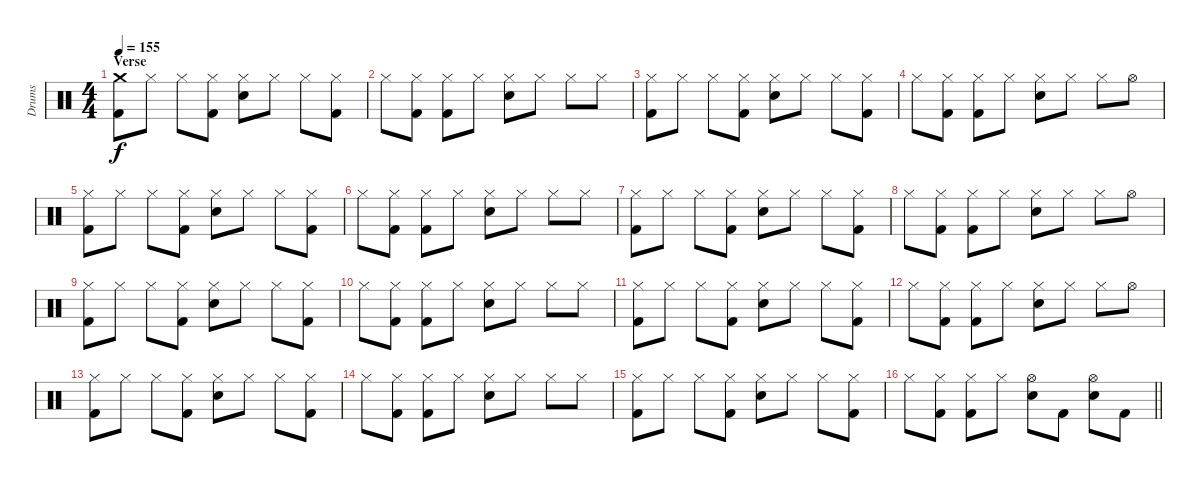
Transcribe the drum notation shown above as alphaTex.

\track ("Drums" "Drums") {instrument percussion}
\staff {score}
\articulation defaults
\ts (4 4)
\section ("" "Verse")
\tempo 155
\clef neutral
\ks c
("Crash medium (hit)" "Kick (hit) 2").8{dy f} "Hi-Hat (closed)".8 "Hi-Hat (closed)".8 ("Hi-Hat (closed)" "Kick (hit) 2").8 ("Hi-Hat (closed)" "Electric Snare (hit)").8 "Hi-Hat (closed)".8 "Hi-Hat (closed)".8 ("Hi-Hat (closed)" "Kick (hit) 2").8 |
"Hi-Hat (closed)".8 ("Hi-Hat (closed)" "Kick (hit) 2").8 ("Hi-Hat (closed)" "Kick (hit) 2").8 "Hi-Hat (closed)".8 ("Hi-Hat (closed)" "Electric Snare (hit)").8 "Hi-Hat (closed)".8 "Hi-Hat (closed)".8 "Hi-Hat (closed)".8 |
("Hi-Hat (closed)" "Kick (hit) 2").8 "Hi-Hat (closed)".8 "Hi-Hat (closed)".8 ("Hi-Hat (closed)" "Kick (hit) 2").8 ("Hi-Hat (closed)" "Electric Snare (hit)").8 "Hi-Hat (closed)".8 "Hi-Hat (closed)".8 ("Hi-Hat (closed)" "Kick (hit) 2").8 |
"Hi-Hat (closed)".8 ("Hi-Hat (closed)" "Kick (hit) 2").8 ("Hi-Hat (closed)" "Kick (hit) 2").8 "Hi-Hat (closed)".8 ("Hi-Hat (closed)" "Electric Snare (hit)").8 "Hi-Hat (closed)".8 "Hi-Hat (closed)".8 "Hi-Hat (open)".8 |
("Hi-Hat (closed)" "Kick (hit) 2").8 "Hi-Hat (closed)".8 "Hi-Hat (closed)".8 ("Hi-Hat (closed)" "Kick (hit) 2").8 ("Hi-Hat (closed)" "Electric Snare (hit)").8 "Hi-Hat (closed)".8 "Hi-Hat (closed)".8 ("Hi-Hat (closed)" "Kick (hit) 2").8 |
"Hi-Hat (closed)".8 ("Hi-Hat (closed)" "Kick (hit) 2").8 ("Hi-Hat (closed)" "Kick (hit) 2").8 "Hi-Hat (closed)".8 ("Hi-Hat (closed)" "Electric Snare (hit)").8 "Hi-Hat (closed)".8 "Hi-Hat (closed)".8 "Hi-Hat (closed)".8 |
("Hi-Hat (closed)" "Kick (hit) 2").8 "Hi-Hat (closed)".8 "Hi-Hat (closed)".8 ("Hi-Hat (closed)" "Kick (hit) 2").8 ("Hi-Hat (closed)" "Electric Snare (hit)").8 "Hi-Hat (closed)".8 "Hi-Hat (closed)".8 ("Hi-Hat (closed)" "Kick (hit) 2").8 |
"Hi-Hat (closed)".8 ("Hi-Hat (closed)" "Kick (hit) 2").8 ("Hi-Hat (closed)" "Kick (hit) 2").8 "Hi-Hat (closed)".8 ("Hi-Hat (closed)" "Electric Snare (hit)").8 "Hi-Hat (closed)".8 "Hi-Hat (closed)".8 "Hi-Hat (open)".8 |
("Hi-Hat (closed)" "Kick (hit) 2").8 "Hi-Hat (closed)".8 "Hi-Hat (closed)".8 ("Hi-Hat (closed)" "Kick (hit) 2").8 ("Hi-Hat (closed)" "Electric Snare (hit)").8 "Hi-Hat (closed)".8 "Hi-Hat (closed)".8 ("Hi-Hat (closed)" "Kick (hit) 2").8 |
"Hi-Hat (closed)".8 ("Hi-Hat (closed)" "Kick (hit) 2").8 ("Hi-Hat (closed)" "Kick (hit) 2").8 "Hi-Hat (closed)".8 ("Hi-Hat (closed)" "Electric Snare (hit)").8 "Hi-Hat (closed)".8 "Hi-Hat (closed)".8 "Hi-Hat (closed)".8 |
("Hi-Hat (closed)" "Kick (hit) 2").8 "Hi-Hat (closed)".8 "Hi-Hat (closed)".8 ("Hi-Hat (closed)" "Kick (hit) 2").8 ("Hi-Hat (closed)" "Electric Snare (hit)").8 "Hi-Hat (closed)".8 "Hi-Hat (closed)".8 ("Hi-Hat (closed)" "Kick (hit) 2").8 |
"Hi-Hat (closed)".8 ("Hi-Hat (closed)" "Kick (hit) 2").8 ("Hi-Hat (closed)" "Kick (hit) 2").8 "Hi-Hat (closed)".8 ("Hi-Hat (closed)" "Electric Snare (hit)").8 "Hi-Hat (closed)".8 "Hi-Hat (closed)".8 "Hi-Hat (open)".8 |
("Hi-Hat (closed)" "Kick (hit) 2").8 "Hi-Hat (closed)".8 "Hi-Hat (closed)".8 ("Hi-Hat (closed)" "Kick (hit) 2").8 ("Hi-Hat (closed)" "Electric Snare (hit)").8 "Hi-Hat (closed)".8 "Hi-Hat (closed)".8 ("Hi-Hat (closed)" "Kick (hit) 2").8 |
"Hi-Hat (closed)".8 ("Hi-Hat (closed)" "Kick (hit) 2").8 ("Hi-Hat (closed)" "Kick (hit) 2").8 "Hi-Hat (closed)".8 ("Hi-Hat (closed)" "Electric Snare (hit)").8 "Hi-Hat (closed)".8 "Hi-Hat (closed)".8 "Hi-Hat (closed)".8 |
("Hi-Hat (closed)" "Kick (hit) 2").8 "Hi-Hat (closed)".8 "Hi-Hat (closed)".8 ("Hi-Hat (closed)" "Kick (hit) 2").8 ("Hi-Hat (closed)" "Electric Snare (hit)").8 "Hi-Hat (closed)".8 "Hi-Hat (closed)".8 ("Hi-Hat (closed)" "Kick (hit) 2").8 |
\barLineRight lightlight "Hi-Hat (closed)".8
("Hi-Hat (closed)" "Kick (hit) 2").8 ("Hi-Hat (closed)" "Kick (hit) 2").8 "Hi-Hat (closed)".8 ("Hi-Hat (open)" "Electric Snare (hit)").8 "Kick (hit) 2".8 ("Hi-Hat (open)" "Electric Snare (hit)").8 "Kick (hit) 2".8
